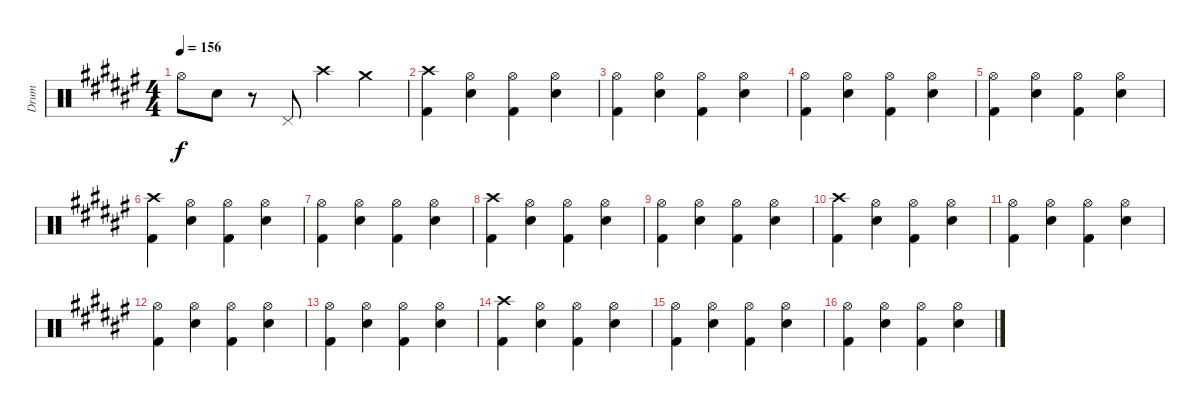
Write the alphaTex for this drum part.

\track ("Drum" "Drum") {instrument percussion}
\staff {score}
\articulation defaults
\ts (4 4)
\tempo 156
\clef neutral
\ks f# "Hi-Hat (open)".8{dy f} "Electric Snare (hit)".8
r.8 "Pedal Hi-Hat (hit)".8 "Crash high (hit)".4 "Crash medium (hit)".4 |
("Crash high (hit)" "Kick (hit) 2").4 ("Hi-Hat (open)" "Electric Snare (hit)").4 ("Hi-Hat (open)" "Kick (hit) 2").4 ("Hi-Hat (open)" "Electric Snare (hit)").4 |
("Hi-Hat (open)" "Kick (hit) 2").4 ("Hi-Hat (open)" "Electric Snare (hit)").4 ("Hi-Hat (open)" "Kick (hit) 2").4 ("Hi-Hat (open)" "Electric Snare (hit)").4 |
("Hi-Hat (open)" "Kick (hit) 2").4 ("Hi-Hat (open)" "Electric Snare (hit)").4 ("Hi-Hat (open)" "Kick (hit) 2").4 ("Hi-Hat (open)" "Electric Snare (hit)").4 |
("Hi-Hat (open)" "Kick (hit) 2").4 ("Hi-Hat (open)" "Electric Snare (hit)").4 ("Hi-Hat (open)" "Kick (hit) 2").4 ("Hi-Hat (open)" "Electric Snare (hit)").4 |
("Crash high (hit)" "Kick (hit) 2").4 ("Hi-Hat (open)" "Electric Snare (hit)").4 ("Hi-Hat (open)" "Kick (hit) 2").4 ("Hi-Hat (open)" "Electric Snare (hit)").4 |
("Hi-Hat (open)" "Kick (hit) 2").4 ("Hi-Hat (open)" "Electric Snare (hit)").4 ("Hi-Hat (open)" "Kick (hit) 2").4 ("Hi-Hat (open)" "Electric Snare (hit)").4 |
("Crash high (hit)" "Kick (hit) 2").4 ("Hi-Hat (open)" "Electric Snare (hit)").4 ("Hi-Hat (open)" "Kick (hit) 2").4 ("Hi-Hat (open)" "Electric Snare (hit)").4 |
("Hi-Hat (open)" "Kick (hit) 2").4 ("Hi-Hat (open)" "Electric Snare (hit)").4 ("Hi-Hat (open)" "Kick (hit) 2").4 ("Hi-Hat (open)" "Electric Snare (hit)").4 |
("Crash high (hit)" "Kick (hit) 2").4 ("Hi-Hat (open)" "Electric Snare (hit)").4 ("Hi-Hat (open)" "Kick (hit) 2").4 ("Hi-Hat (open)" "Electric Snare (hit)").4 |
("Hi-Hat (open)" "Kick (hit) 2").4 ("Hi-Hat (open)" "Electric Snare (hit)").4 ("Hi-Hat (open)" "Kick (hit) 2").4 ("Hi-Hat (open)" "Electric Snare (hit)").4 |
("Hi-Hat (open)" "Kick (hit) 2").4 ("Hi-Hat (open)" "Electric Snare (hit)").4 ("Hi-Hat (open)" "Kick (hit) 2").4 ("Hi-Hat (open)" "Electric Snare (hit)").4 |
("Hi-Hat (open)" "Kick (hit) 2").4 ("Hi-Hat (open)" "Electric Snare (hit)").4 ("Hi-Hat (open)" "Kick (hit) 2").4 ("Hi-Hat (open)" "Electric Snare (hit)").4 |
("Crash high (hit)" "Kick (hit) 2").4 ("Hi-Hat (open)" "Electric Snare (hit)").4 ("Hi-Hat (open)" "Kick (hit) 2").4 ("Hi-Hat (open)" "Electric Snare (hit)").4 |
("Hi-Hat (open)" "Kick (hit) 2").4 ("Hi-Hat (open)" "Electric Snare (hit)").4 ("Hi-Hat (open)" "Kick (hit) 2").4 ("Hi-Hat (open)" "Electric Snare (hit)").4 |
("Hi-Hat (open)" "Kick (hit) 2").4 ("Hi-Hat (open)" "Electric Snare (hit)").4 ("Hi-Hat (open)" "Kick (hit) 2").4 ("Hi-Hat (open)" "Electric Snare (hit)").4
